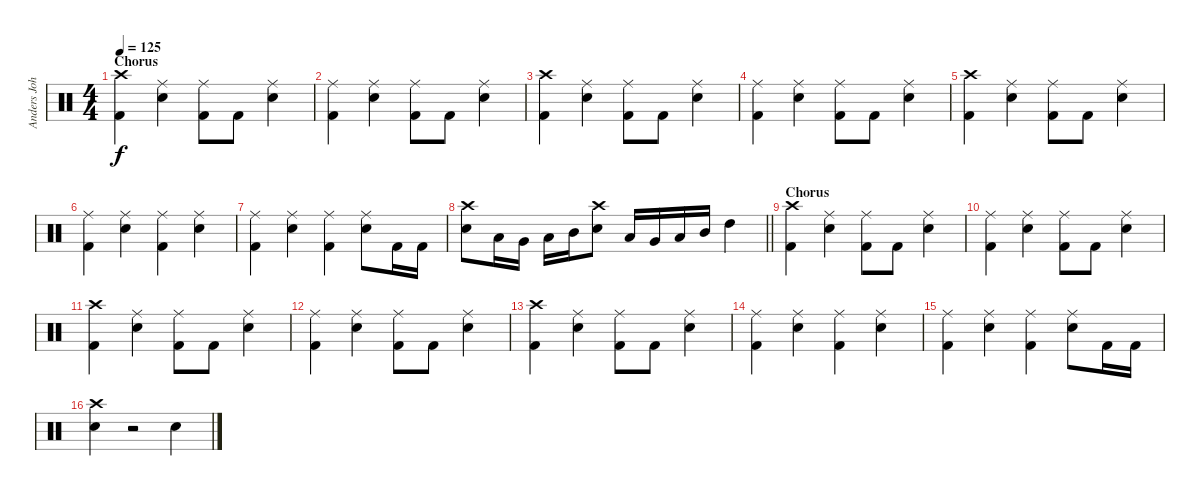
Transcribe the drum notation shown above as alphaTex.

\track ("Anders Johansson" "Anders Joh") {instrument percussion}
\staff {score}
\articulation defaults
\ts (4 4)
\section ("" "Chorus")
\tempo 125
\clef neutral
\ks c
("Kick (hit) 2" "Crash high (hit)").4{dy f} ("Electric Snare (hit)" "Ride (middle)").4 ("Kick (hit) 2" "Ride (middle)").8 "Kick (hit) 2".8 ("Electric Snare (hit)" "Ride (middle)").4 |
("Kick (hit) 2" "Ride (middle)").4 ("Electric Snare (hit)" "Ride (middle)").4 ("Kick (hit) 2" "Ride (middle)").8 "Kick (hit) 2".8 ("Ride (middle)" "Electric Snare (hit)").4 |
("Kick (hit) 2" "Crash high (hit)").4 ("Electric Snare (hit)" "Ride (middle)").4 ("Kick (hit) 2" "Ride (middle)").8 "Kick (hit) 2".8 ("Ride (middle)" "Electric Snare (hit)").4 |
("Kick (hit) 2" "Ride (middle)").4 ("Electric Snare (hit)" "Ride (middle)").4 ("Kick (hit) 2" "Ride (middle)").8 "Kick (hit) 2".8 ("Electric Snare (hit)" "Ride (middle)").4 |
("Kick (hit) 2" "Crash high (hit)").4 ("Electric Snare (hit)" "Ride (middle)").4 ("Kick (hit) 2" "Ride (middle)").8 "Kick (hit) 2".8 ("Electric Snare (hit)" "Ride (middle)").4 |
("Kick (hit) 2" "Ride (middle)").4 ("Electric Snare (hit)" "Ride (middle)").4 ("Kick (hit) 2" "Ride (middle)").4 ("Electric Snare (hit)" "Ride (middle)").4 |
("Kick (hit) 2" "Ride (middle)").4 ("Electric Snare (hit)" "Ride (middle)").4 ("Kick (hit) 2" "Ride (middle)").4 ("Electric Snare (hit)" "Ride (middle)").8 "Kick (hit) 2".16 "Kick (hit) 2".16 |
\barLineRight lightlight
("Crash high (hit)" "Electric Snare (hit)").8 "Low Floor Tom (hit)".16 "Very Low Tom (hit)".16 "Low Tom (hit)".16 "Mid Tom (hit)".16 ("Crash high (hit)" "Electric Snare (hit)").8 "Low Floor Tom (hit)".16 "Very Low Tom (hit)".16 "Low Tom (hit)".16 "Mid Tom (hit)".16 "High Tom (hit)".4 |
\section ("" "Chorus")
("Kick (hit) 2" "Crash high (hit)").4 ("Electric Snare (hit)" "Ride (middle)").4 ("Kick (hit) 2" "Ride (middle)").8 "Kick (hit) 2".8 ("Electric Snare (hit)" "Ride (middle)").4 |
("Kick (hit) 2" "Ride (middle)").4 ("Electric Snare (hit)" "Ride (middle)").4 ("Kick (hit) 2" "Ride (middle)").8 "Kick (hit) 2".8 ("Ride (middle)" "Electric Snare (hit)").4 |
("Kick (hit) 2" "Crash high (hit)").4 ("Electric Snare (hit)" "Ride (middle)").4 ("Kick (hit) 2" "Ride (middle)").8 "Kick (hit) 2".8 ("Ride (middle)" "Electric Snare (hit)").4 |
("Kick (hit) 2" "Ride (middle)").4 ("Electric Snare (hit)" "Ride (middle)").4 ("Kick (hit) 2" "Ride (middle)").8 "Kick (hit) 2".8 ("Electric Snare (hit)" "Ride (middle)").4 |
("Kick (hit) 2" "Crash high (hit)").4 ("Electric Snare (hit)" "Ride (middle)").4 ("Kick (hit) 2" "Ride (middle)").8 "Kick (hit) 2".8 ("Electric Snare (hit)" "Ride (middle)").4 |
("Kick (hit) 2" "Ride (middle)").4 ("Electric Snare (hit)" "Ride (middle)").4 ("Kick (hit) 2" "Ride (middle)").4 ("Electric Snare (hit)" "Ride (middle)").4 |
("Kick (hit) 2" "Ride (middle)").4 ("Electric Snare (hit)" "Ride (middle)").4 ("Kick (hit) 2" "Ride (middle)").4 ("Electric Snare (hit)" "Ride (middle)").8 "Kick (hit) 2".16 "Kick (hit) 2".16 |
("Crash high (hit)" "Electric Snare (hit)").4 r.2 "Electric Snare (hit)".4
